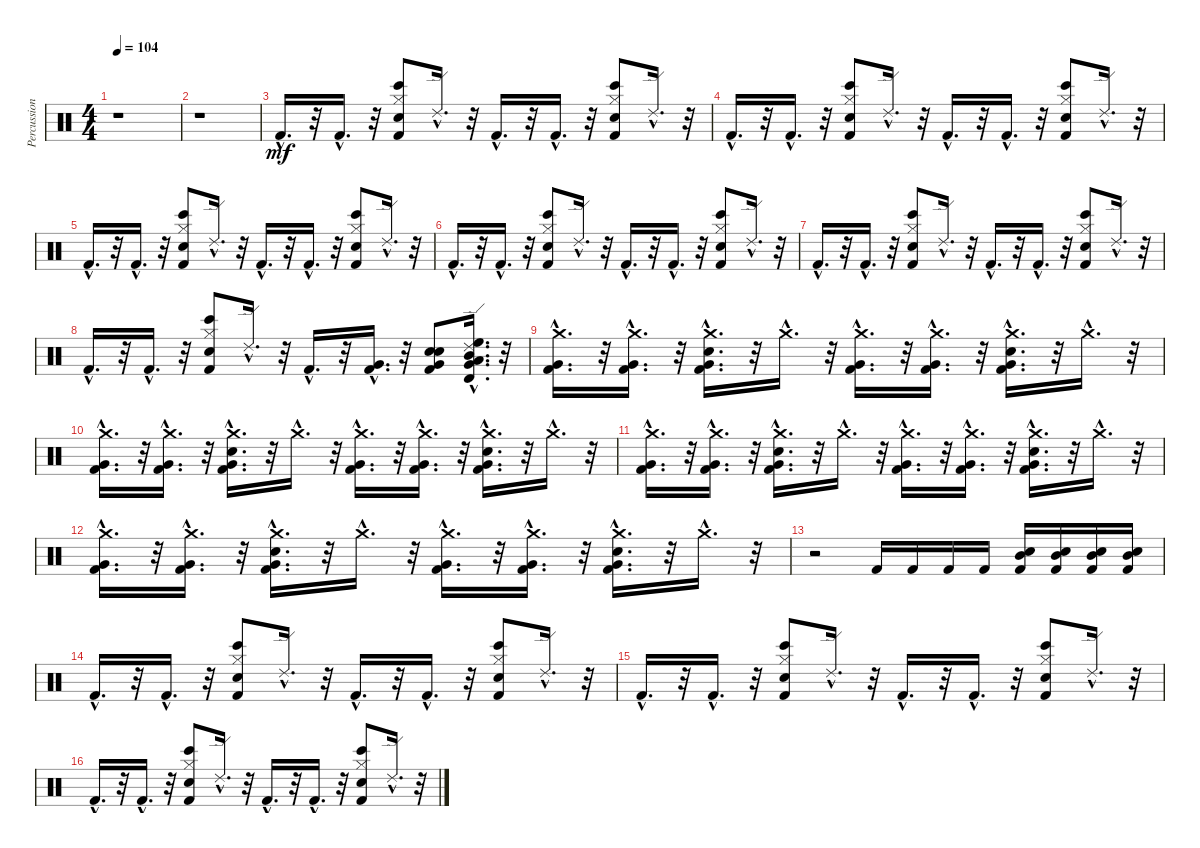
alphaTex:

\track ("Percussion" "Percussion") {instrument percussion}
\staff {score}
\articulation defaults
\ts (4 4)
\tempo 104
\clef neutral
\ks c
r.1{dy mf} |
r.1 |
"Kick (hit) 2"{hac}.16{d} r.32 "Kick (hit) 2"{hac}.16{d} r.32 ("Kick (hit) 2" "Bongo High (hit)" "Hi-Hat (closed)" "Hand Clap (hit)").8 "Ride (edge) 2"{hac}.16{d} r.32 "Kick (hit) 2"{hac}.16{d} r.32 "Kick (hit) 2"{hac}.16{d} r.32 ("Kick (hit) 2" "Bongo High (hit)" "Hand Clap (hit)" "Hi-Hat (closed)").8 "Ride (edge) 2"{hac}.16{d} r.32 |
"Kick (hit) 2"{hac}.16{d} r.32 "Kick (hit) 2"{hac}.16{d} r.32 ("Hi-Hat (closed)" "Hand Clap (hit)" "Bongo High (hit)" "Kick (hit) 2").8 "Ride (edge) 2"{hac}.16{d} r.32 "Kick (hit) 2"{hac}.16{d} r.32 "Kick (hit) 2"{hac}.16{d} r.32 ("Hi-Hat (closed)" "Hand Clap (hit)" "Bongo High (hit)" "Kick (hit) 2").8 "Ride (edge) 2"{hac}.16{d} r.32 |
"Kick (hit) 2"{hac}.16{d} r.32 "Kick (hit) 2"{hac}.16{d} r.32 ("Hi-Hat (closed)" "Hand Clap (hit)" "Bongo High (hit)" "Kick (hit) 2").8 "Ride (edge) 2"{hac}.16{d} r.32 "Kick (hit) 2"{hac}.16{d} r.32 "Kick (hit) 2"{hac}.16{d} r.32 ("Hi-Hat (closed)" "Hand Clap (hit)" "Bongo High (hit)" "Kick (hit) 2").8 "Ride (edge) 2"{hac}.16{d} r.32 |
"Kick (hit) 2"{hac}.16{d} r.32 "Kick (hit) 2"{hac}.16{d} r.32 ("Hi-Hat (closed)" "Hand Clap (hit)" "Bongo High (hit)" "Kick (hit) 2").8 "Ride (edge) 2"{hac}.16{d} r.32 "Kick (hit) 2"{hac}.16{d} r.32 "Kick (hit) 2"{hac}.16{d} r.32 ("Hi-Hat (closed)" "Hand Clap (hit)" "Bongo High (hit)" "Kick (hit) 2").8 "Ride (edge) 2"{hac}.16{d} r.32 |
"Kick (hit) 2"{hac}.16{d} r.32 "Kick (hit) 2"{hac}.16{d} r.32 ("Hi-Hat (closed)" "Hand Clap (hit)" "Bongo High (hit)" "Kick (hit) 2").8 "Ride (edge) 2"{hac}.16{d} r.32 "Kick (hit) 2"{hac}.16{d} r.32 "Kick (hit) 2"{hac}.16{d} r.32 ("Hi-Hat (closed)" "Hand Clap (hit)" "Bongo High (hit)" "Kick (hit) 2").8 "Ride (edge) 2"{hac}.16{d} r.32 |
"Kick (hit) 2"{hac}.16{d} r.32 "Kick (hit) 2"{hac}.16{d} r.32 ("Hi-Hat (closed)" "Hand Clap (hit)" "Bongo High (hit)" "Kick (hit) 2").8 "Ride (edge) 2"{hac}.16{d} r.32 "Kick (hit) 2"{hac}.16{d} r.32 ("Very Low Tom (hit)"{hac} "Kick (hit) 2"{hac}).16{d} r.32 ("Snare (hit) 2" "Kick (hit) 2" "Very Low Tom (hit)" "Electric Snare (hit)").8 ("Timbale high (hit)"{hac} "High Floor Tom (hit)"{hac} "Low Floor Tom (hit)"{hac} "Very Low Tom (hit)"{hac} "Mid Tom (hit)"{hac} "Ride (edge) 2"{hac}).16{d} r.32 |
("Kick (hit) 2"{hac} "Very Low Tom (hit)"{hac} "Crash medium (hit)"{hac}).16{d} r.32 ("Kick (hit) 2"{hac} "Very Low Tom (hit)"{hac} "Crash medium (hit)"{hac}).16{d} r.32 ("Electric Snare (hit)"{hac} "Kick (hit) 2"{hac} "Crash medium (hit)"{hac} "Very Low Tom (hit)"{hac}).16{d} r.32 "Crash medium (hit)"{hac}.16{d} r.32 ("Kick (hit) 2"{hac} "Very Low Tom (hit)"{hac} "Crash medium (hit)"{hac}).16{d} r.32 ("Kick (hit) 2"{hac} "Very Low Tom (hit)"{hac} "Crash medium (hit)"{hac}).16{d} r.32 ("Electric Snare (hit)"{hac} "Kick (hit) 2"{hac} "Crash medium (hit)"{hac} "Very Low Tom (hit)"{hac}).16{d} r.32 "Crash medium (hit)"{hac}.16{d} r.32 |
("Kick (hit) 2"{hac} "Very Low Tom (hit)"{hac} "Crash medium (hit)"{hac}).16{d} r.32 ("Kick (hit) 2"{hac} "Very Low Tom (hit)"{hac} "Crash medium (hit)"{hac}).16{d} r.32 ("Electric Snare (hit)"{hac} "Kick (hit) 2"{hac} "Crash medium (hit)"{hac} "Very Low Tom (hit)"{hac}).16{d} r.32 "Crash medium (hit)"{hac}.16{d} r.32 ("Kick (hit) 2"{hac} "Very Low Tom (hit)"{hac} "Crash medium (hit)"{hac}).16{d} r.32 ("Kick (hit) 2"{hac} "Very Low Tom (hit)"{hac} "Crash medium (hit)"{hac}).16{d} r.32 ("Electric Snare (hit)"{hac} "Kick (hit) 2"{hac} "Crash medium (hit)"{hac} "Very Low Tom (hit)"{hac}).16{d} r.32 "Crash medium (hit)"{hac}.16{d} r.32 |
("Kick (hit) 2"{hac} "Very Low Tom (hit)"{hac} "Crash medium (hit)"{hac}).16{d} r.32 ("Kick (hit) 2"{hac} "Very Low Tom (hit)"{hac} "Crash medium (hit)"{hac}).16{d} r.32 ("Electric Snare (hit)"{hac} "Kick (hit) 2"{hac} "Crash medium (hit)"{hac} "Very Low Tom (hit)"{hac}).16{d} r.32 "Crash medium (hit)"{hac}.16{d} r.32 ("Kick (hit) 2"{hac} "Very Low Tom (hit)"{hac} "Crash medium (hit)"{hac}).16{d} r.32 ("Kick (hit) 2"{hac} "Very Low Tom (hit)"{hac} "Crash medium (hit)"{hac}).16{d} r.32 ("Electric Snare (hit)"{hac} "Kick (hit) 2"{hac} "Crash medium (hit)"{hac} "Very Low Tom (hit)"{hac}).16{d} r.32 "Crash medium (hit)"{hac}.16{d} r.32 |
("Kick (hit) 2"{hac} "Very Low Tom (hit)"{hac} "Crash medium (hit)"{hac}).16{d} r.32 ("Kick (hit) 2"{hac} "Very Low Tom (hit)"{hac} "Crash medium (hit)"{hac}).16{d} r.32 ("Electric Snare (hit)"{hac} "Kick (hit) 2"{hac} "Crash medium (hit)"{hac} "Very Low Tom (hit)"{hac}).16{d} r.32 "Crash medium (hit)"{hac}.16{d} r.32 ("Kick (hit) 2"{hac} "Very Low Tom (hit)"{hac} "Crash medium (hit)"{hac}).16{d} r.32 ("Kick (hit) 2"{hac} "Very Low Tom (hit)"{hac} "Crash medium (hit)"{hac}).16{d} r.32 ("Electric Snare (hit)"{hac} "Kick (hit) 2"{hac} "Crash medium (hit)"{hac} "Very Low Tom (hit)"{hac}).16{d} r.32 "Crash medium (hit)"{hac}.16{d} r.32 |
r.2 "Kick (hit) 2".16 "Kick (hit) 2".16 "Kick (hit) 2".16 "Kick (hit) 2".16 ("Mid Tom (hit)" "Kick (hit) 2" "Hand Clap (hit)").16 ("Mid Tom (hit)" "Kick (hit) 2" "Hand Clap (hit)").16 ("Mid Tom (hit)" "Kick (hit) 2" "Hand Clap (hit)").16 ("Mid Tom (hit)" "Kick (hit) 2" "Hand Clap (hit)").16 |
"Kick (hit) 2"{hac}.16{d} r.32 "Kick (hit) 2"{hac}.16{d} r.32 ("Bongo High (hit)" "Hi-Hat (closed)" "Hand Clap (hit)" "Kick (hit) 2").8 "Ride (edge) 2"{hac}.16{d} r.32 "Kick (hit) 2"{hac}.16{d} r.32 "Kick (hit) 2"{hac}.16{d} r.32 ("Kick (hit) 2" "Hand Clap (hit)" "Hi-Hat (closed)" "Bongo High (hit)").8 "Ride (edge) 2"{hac}.16{d} r.32 |
"Kick (hit) 2"{hac}.16{d} r.32 "Kick (hit) 2"{hac}.16{d} r.32 ("Kick (hit) 2" "Hand Clap (hit)" "Hi-Hat (closed)" "Bongo High (hit)").8 "Ride (edge) 2"{hac}.16{d} r.32 "Kick (hit) 2"{hac}.16{d} r.32 "Kick (hit) 2"{hac}.16{d} r.32 ("Kick (hit) 2" "Hand Clap (hit)" "Hi-Hat (closed)" "Bongo High (hit)").8 "Ride (edge) 2"{hac}.16{d} r.32 |
"Kick (hit) 2"{hac}.16{d} r.32 "Kick (hit) 2"{hac}.16{d} r.32 ("Kick (hit) 2" "Hand Clap (hit)" "Hi-Hat (closed)" "Bongo High (hit)").8 "Ride (edge) 2"{hac}.16{d} r.32 "Kick (hit) 2"{hac}.16{d} r.32 "Kick (hit) 2"{hac}.16{d} r.32 ("Kick (hit) 2" "Hand Clap (hit)" "Hi-Hat (closed)" "Bongo High (hit)").8 "Ride (edge) 2"{hac}.16{d} r.32
